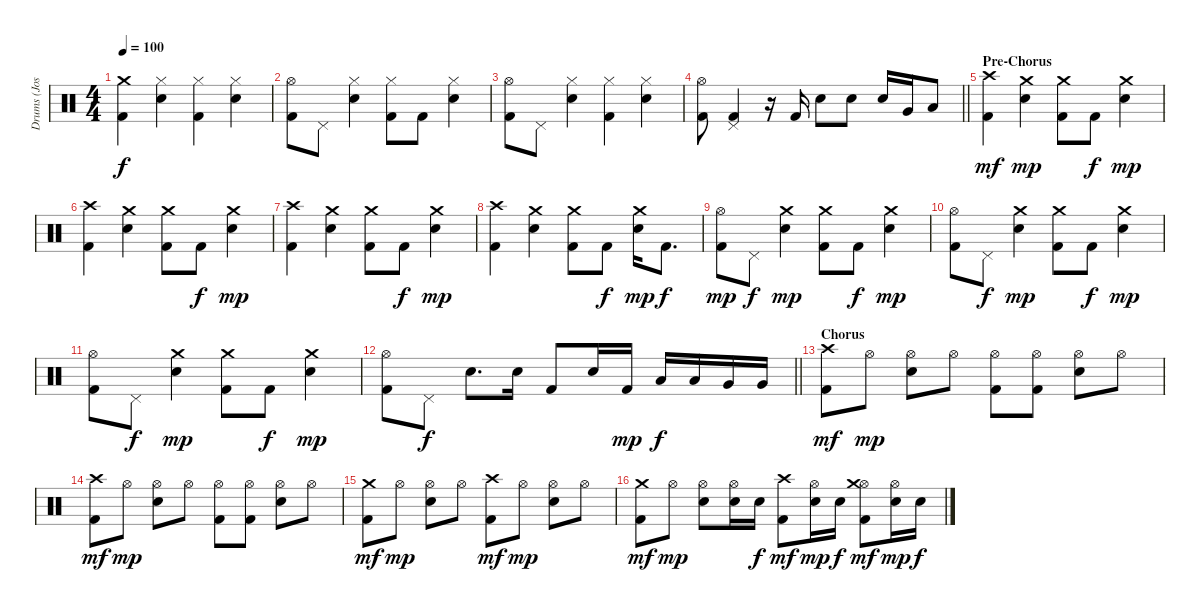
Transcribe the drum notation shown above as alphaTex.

\track ("Drums (Josh Freese)" "Drums (Jos") {instrument percussion}
\staff {score}
\articulation defaults
\ts (4 4)
\tempo 100
\clef neutral
\ks c
("Crash medium (hit)" "Kick (hit) 2").4{dy f} ("Hi-Hat (closed)" "Electric Snare (hit)").4 ("Hi-Hat (closed)" "Kick (hit) 2").4 ("Hi-Hat (closed)" "Electric Snare (hit)").4 |
("Hi-Hat (open)" "Kick (hit) 2").8 "Pedal Hi-Hat (hit)".8 ("Hi-Hat (closed)" "Electric Snare (hit)").4 ("Hi-Hat (closed)" "Kick (hit) 2").8 "Kick (hit) 2".8 ("Hi-Hat (closed)" "Electric Snare (hit)").4 |
("Hi-Hat (open)" "Kick (hit) 2").8 "Pedal Hi-Hat (hit)".8 ("Hi-Hat (closed)" "Electric Snare (hit)").4 ("Hi-Hat (closed)" "Kick (hit) 2").4 ("Hi-Hat (closed)" "Electric Snare (hit)").4 |
\barLineRight lightlight
("Hi-Hat (open)" "Kick (hit) 2").8 ("Pedal Hi-Hat (hit)" "Kick (hit) 2").4 r.16 "Kick (hit) 2".16 "Electric Snare (hit)".8 "Electric Snare (hit)".8 "Electric Snare (hit)".16 "Very Low Tom (hit)".16 "Low Floor Tom (hit)".8 |
\section ("" "Pre-Chorus")
("Crash high (hit)" "Kick (hit) 2").4{dy mf} ("Crash medium (hit)" "Electric Snare (hit)").4{dy mp} ("Crash medium (hit)" "Kick (hit) 2").8 "Kick (hit) 2".8{dy f} ("Crash medium (hit)" "Electric Snare (hit)").4{dy mp} |
("Crash high (hit)" "Kick (hit) 2").4 ("Crash medium (hit)" "Electric Snare (hit)").4 ("Crash medium (hit)" "Kick (hit) 2").8 "Kick (hit) 2".8{dy f} ("Crash medium (hit)" "Electric Snare (hit)").4{dy mp} |
("Crash high (hit)" "Kick (hit) 2").4 ("Crash medium (hit)" "Electric Snare (hit)").4 ("Crash medium (hit)" "Kick (hit) 2").8 "Kick (hit) 2".8{dy f} ("Crash medium (hit)" "Electric Snare (hit)").4{dy mp} |
("Crash high (hit)" "Kick (hit) 2").4 ("Crash medium (hit)" "Electric Snare (hit)").4 ("Crash medium (hit)" "Kick (hit) 2").8 "Kick (hit) 2".8{dy f} ("Crash medium (hit)" "Electric Snare (hit)").16{dy mp} "Kick (hit) 2".8{d dy f} |
("Hi-Hat (open)" "Kick (hit) 2").8{dy mp} "Pedal Hi-Hat (hit)".8{dy f} ("Crash medium (hit)" "Electric Snare (hit)").4{dy mp} ("Crash medium (hit)" "Kick (hit) 2").8 "Kick (hit) 2".8{dy f} ("Crash medium (hit)" "Electric Snare (hit)").4{dy mp} |
("Hi-Hat (open)" "Kick (hit) 2").8 "Pedal Hi-Hat (hit)".8{dy f} ("Crash medium (hit)" "Electric Snare (hit)").4{dy mp} ("Crash medium (hit)" "Kick (hit) 2").8 "Kick (hit) 2".8{dy f} ("Crash medium (hit)" "Electric Snare (hit)").4{dy mp} |
("Hi-Hat (open)" "Kick (hit) 2").8 "Pedal Hi-Hat (hit)".8{dy f} ("Crash medium (hit)" "Electric Snare (hit)").4{dy mp} ("Crash medium (hit)" "Kick (hit) 2").8 "Kick (hit) 2".8{dy f} ("Crash medium (hit)" "Electric Snare (hit)").4{dy mp} |
\barLineRight lightlight
("Hi-Hat (open)" "Kick (hit) 2").8 "Pedal Hi-Hat (hit)".8{dy f} "Electric Snare (hit)".8{d} "Electric Snare (hit)".16 "Kick (hit) 2".8 "Electric Snare (hit)".16 "Kick (hit) 2".16{dy mp} "Low Tom (hit)".16{dy f} "Low Tom (hit)".16 "Very Low Tom (hit)".16 "Very Low Tom (hit)".16 |
\section ("" "Chorus")
("Crash high (hit)" "Kick (hit) 2").8{dy mf} "Hi-Hat (open)".8{dy mp} ("Hi-Hat (open)" "Electric Snare (hit)").8 "Hi-Hat (open)".8 ("Hi-Hat (open)" "Kick (hit) 2").8 ("Hi-Hat (open)" "Kick (hit) 2").8 ("Hi-Hat (open)" "Electric Snare (hit)").8 "Hi-Hat (open)".8 |
("Crash high (hit)" "Kick (hit) 2").8{dy mf} "Hi-Hat (open)".8{dy mp} ("Hi-Hat (open)" "Electric Snare (hit)").8 "Hi-Hat (open)".8 ("Hi-Hat (open)" "Kick (hit) 2").8 ("Hi-Hat (open)" "Kick (hit) 2").8 ("Hi-Hat (open)" "Electric Snare (hit)").8 "Hi-Hat (open)".8 |
("Crash medium (hit)" "Kick (hit) 2").8{dy mf} "Hi-Hat (open)".8{dy mp} ("Hi-Hat (open)" "Electric Snare (hit)").8 "Hi-Hat (open)".8 ("Crash high (hit)" "Kick (hit) 2").8{dy mf} "Hi-Hat (open)".8{dy mp} ("Hi-Hat (open)" "Electric Snare (hit)").8 "Hi-Hat (open)".8 |
("Crash medium (hit)" "Kick (hit) 2").8{dy mf} "Hi-Hat (open)".8{dy mp} ("Hi-Hat (open)" "Electric Snare (hit)").8 ("Hi-Hat (open)" "Electric Snare (hit)").16 "Electric Snare (hit)".16{dy f} ("Crash high (hit)" "Kick (hit) 2").8{dy mf} ("Hi-Hat (open)" "Electric Snare (hit)").16{dy mp} "Electric Snare (hit)".16{dy f} ("Hi-Hat (open)" "Crash medium (hit)" "Kick (hit) 2").8{dy mf} ("Hi-Hat (open)" "Electric Snare (hit)").16{dy mp} "Electric Snare (hit)".16{dy f}
